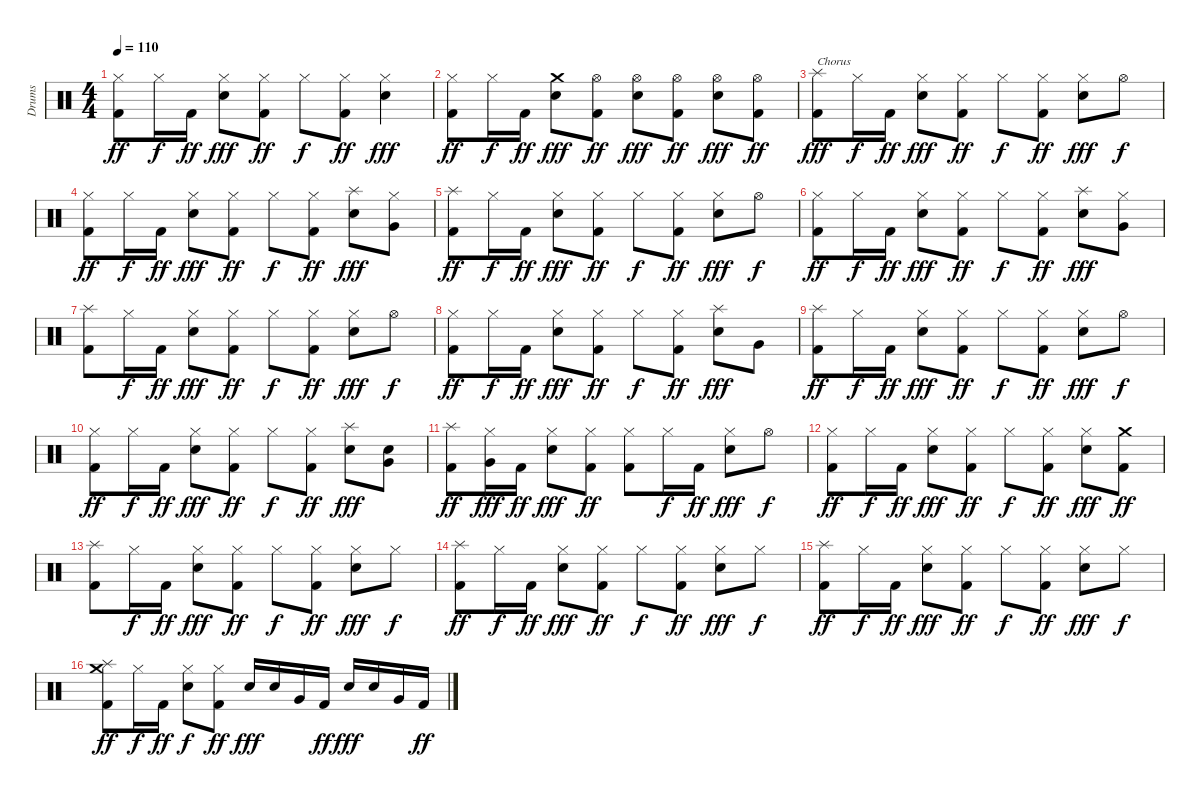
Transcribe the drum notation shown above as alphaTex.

\track ("Drums" "Drums") {instrument percussion}
\staff {score}
\articulation defaults
\ts (4 4)
\tempo 110
\clef neutral
\ks c
("Hi-Hat (closed)" "Kick (hit) 2").8{dy ff} "Hi-Hat (closed)".16{dy f} "Kick (hit) 2".16{dy ff} ("Hi-Hat (closed)" "Electric Snare (hit)").8{dy fff} ("Hi-Hat (closed)" "Kick (hit) 2").8{dy ff} "Hi-Hat (closed)".8{dy f} ("Hi-Hat (closed)" "Kick (hit) 2").8{dy ff} ("Hi-Hat (closed)" "Electric Snare (hit)").4{dy fff} |
("Hi-Hat (closed)" "Kick (hit) 2").8{dy ff} "Hi-Hat (closed)".16{dy f} "Kick (hit) 2".16{dy ff} ("Crash medium (hit)" "Electric Snare (hit)").8{dy fff} ("Hi-Hat (open)" "Kick (hit) 2").8{dy ff} ("Hi-Hat (open)" "Electric Snare (hit)").8{dy fff} ("Hi-Hat (open)" "Kick (hit) 2").8{dy ff} ("Hi-Hat (open)" "Electric Snare (hit)").8{dy fff} ("Hi-Hat (open)" "Kick (hit) 2").8{dy ff} |
("Splash (hit)" "Kick (hit) 2").8{txt "Chorus" dy fff} "Hi-Hat (closed)".16{dy f} "Kick (hit) 2".16{dy ff} ("Hi-Hat (closed)" "Electric Snare (hit)").8{dy fff} ("Hi-Hat (closed)" "Kick (hit) 2").8{dy ff} "Hi-Hat (closed)".8{dy f} ("Hi-Hat (closed)" "Kick (hit) 2").8{dy ff} ("Hi-Hat (closed)" "Electric Snare (hit)").8{dy fff} "Hi-Hat (open)".8{dy f} |
("Hi-Hat (closed)" "Kick (hit) 2").8{dy ff} "Hi-Hat (closed)".16{dy f} "Kick (hit) 2".16{dy ff} ("Hi-Hat (closed)" "Electric Snare (hit)").8{dy fff} ("Hi-Hat (closed)" "Kick (hit) 2").8{dy ff} "Hi-Hat (closed)".8{dy f} ("Hi-Hat (closed)" "Kick (hit) 2").8{dy ff} ("Splash (hit)" "Electric Snare (hit)").8{dy fff} ("Hi-Hat (closed)" "Very Low Tom (hit)").8 |
("Splash (hit)" "Kick (hit) 2").8{dy ff} "Hi-Hat (closed)".16{dy f} "Kick (hit) 2".16{dy ff} ("Hi-Hat (closed)" "Electric Snare (hit)").8{dy fff} ("Hi-Hat (closed)" "Kick (hit) 2").8{dy ff} "Hi-Hat (closed)".8{dy f} ("Hi-Hat (closed)" "Kick (hit) 2").8{dy ff} ("Hi-Hat (closed)" "Electric Snare (hit)").8{dy fff} "Hi-Hat (open)".8{dy f} |
("Hi-Hat (closed)" "Kick (hit) 2").8{dy ff} "Hi-Hat (closed)".16{dy f} "Kick (hit) 2".16{dy ff} ("Hi-Hat (closed)" "Electric Snare (hit)").8{dy fff} ("Hi-Hat (closed)" "Kick (hit) 2").8{dy ff} "Hi-Hat (closed)".8{dy f} ("Hi-Hat (closed)" "Kick (hit) 2").8{dy ff} ("Splash (hit)" "Electric Snare (hit)").8{dy fff} ("Hi-Hat (closed)" "Very Low Tom (hit)").8 |
("Splash (hit)" "Kick (hit) 2").8 "Hi-Hat (closed)".16{dy f} "Kick (hit) 2".16{dy ff} ("Hi-Hat (closed)" "Electric Snare (hit)").8{dy fff} ("Hi-Hat (closed)" "Kick (hit) 2").8{dy ff} "Hi-Hat (closed)".8{dy f} ("Hi-Hat (closed)" "Kick (hit) 2").8{dy ff} ("Hi-Hat (closed)" "Electric Snare (hit)").8{dy fff} "Hi-Hat (open)".8{dy f} |
("Hi-Hat (closed)" "Kick (hit) 2").8{dy ff} "Hi-Hat (closed)".16{dy f} "Kick (hit) 2".16{dy ff} ("Hi-Hat (closed)" "Electric Snare (hit)").8{dy fff} ("Hi-Hat (closed)" "Kick (hit) 2").8{dy ff} "Hi-Hat (closed)".8{dy f} ("Hi-Hat (closed)" "Kick (hit) 2").8{dy ff} ("Splash (hit)" "Electric Snare (hit)").8{dy fff} "Very Low Tom (hit)".8 |
("Splash (hit)" "Kick (hit) 2").8{dy ff} "Hi-Hat (closed)".16{dy f} "Kick (hit) 2".16{dy ff} ("Hi-Hat (closed)" "Electric Snare (hit)").8{dy fff} ("Hi-Hat (closed)" "Kick (hit) 2").8{dy ff} "Hi-Hat (closed)".8{dy f} ("Hi-Hat (closed)" "Kick (hit) 2").8{dy ff} ("Hi-Hat (closed)" "Electric Snare (hit)").8{dy fff} "Hi-Hat (open)".8{dy f} |
("Hi-Hat (closed)" "Kick (hit) 2").8{dy ff} "Hi-Hat (closed)".16{dy f} "Kick (hit) 2".16{dy ff} ("Hi-Hat (closed)" "Electric Snare (hit)").8{dy fff} ("Hi-Hat (closed)" "Kick (hit) 2").8{dy ff} "Hi-Hat (closed)".8{dy f} ("Hi-Hat (closed)" "Kick (hit) 2").8{dy ff} ("Splash (hit)" "Electric Snare (hit)").8{dy fff} ("Electric Snare (hit)" "Very Low Tom (hit)").8 |
("Splash (hit)" "Kick (hit) 2").8{dy ff} ("Hi-Hat (closed)" "Very Low Tom (hit)").16{dy fff} "Kick (hit) 2".16{dy ff} ("Hi-Hat (closed)" "Electric Snare (hit)").8{dy fff} ("Hi-Hat (closed)" "Kick (hit) 2").8{dy ff} ("Hi-Hat (closed)" "Kick (hit) 2").8 "Hi-Hat (closed)".16{dy f} "Kick (hit) 2".16{dy ff} ("Hi-Hat (closed)" "Electric Snare (hit)").8{dy fff} "Hi-Hat (open)".8{dy f} |
("Hi-Hat (closed)" "Kick (hit) 2").8{dy ff} "Hi-Hat (closed)".16{dy f} "Kick (hit) 2".16{dy ff} ("Hi-Hat (closed)" "Electric Snare (hit)").8{dy fff} ("Hi-Hat (closed)" "Kick (hit) 2").8{dy ff} "Hi-Hat (closed)".8{dy f} ("Hi-Hat (closed)" "Kick (hit) 2").8{dy ff} ("Hi-Hat (closed)" "Electric Snare (hit)").8{dy fff} ("Crash medium (hit)" "Kick (hit) 2").8{dy ff} |
("Splash (hit)" "Kick (hit) 2").8 "Hi-Hat (closed)".16{dy f} "Kick (hit) 2".16{dy ff} ("Hi-Hat (closed)" "Electric Snare (hit)").8{dy fff} ("Hi-Hat (closed)" "Kick (hit) 2").8{dy ff} "Hi-Hat (closed)".8{dy f} ("Hi-Hat (closed)" "Kick (hit) 2").8{dy ff} ("Hi-Hat (closed)" "Electric Snare (hit)").8{dy fff} "Hi-Hat (closed)".8{dy f} |
("Splash (hit)" "Kick (hit) 2").8{dy ff} "Hi-Hat (closed)".16{dy f} "Kick (hit) 2".16{dy ff} ("Hi-Hat (closed)" "Electric Snare (hit)").8{dy fff} ("Hi-Hat (closed)" "Kick (hit) 2").8{dy ff} "Hi-Hat (closed)".8{dy f} ("Hi-Hat (closed)" "Kick (hit) 2").8{dy ff} ("Hi-Hat (closed)" "Electric Snare (hit)").8{dy fff} "Hi-Hat (closed)".8{dy f} |
("Splash (hit)" "Kick (hit) 2").8{dy ff} "Hi-Hat (closed)".16{dy f} "Kick (hit) 2".16{dy ff} ("Hi-Hat (closed)" "Electric Snare (hit)").8{dy fff} ("Hi-Hat (closed)" "Kick (hit) 2").8{dy ff} "Hi-Hat (closed)".8{dy f} ("Hi-Hat (closed)" "Kick (hit) 2").8{dy ff} ("Hi-Hat (closed)" "Electric Snare (hit)").8{dy fff} "Hi-Hat (closed)".8{dy f} |
("Splash (hit)" "Crash medium (hit)" "Kick (hit) 2").8{dy ff} "Hi-Hat (closed)".16{dy f} "Kick (hit) 2".16{dy ff} ("Hi-Hat (closed)" "Electric Snare (hit)").8{dy f} ("Hi-Hat (closed)" "Kick (hit) 2").8{dy ff} "Electric Snare (hit)".16{dy fff} "Electric Snare (hit)".16 "Very Low Tom (hit)".16 "Kick (hit) 2".16{dy ff} "Electric Snare (hit)".16{dy fff} "Electric Snare (hit)".16 "Very Low Tom (hit)".16 "Kick (hit) 2".16{dy ff}
